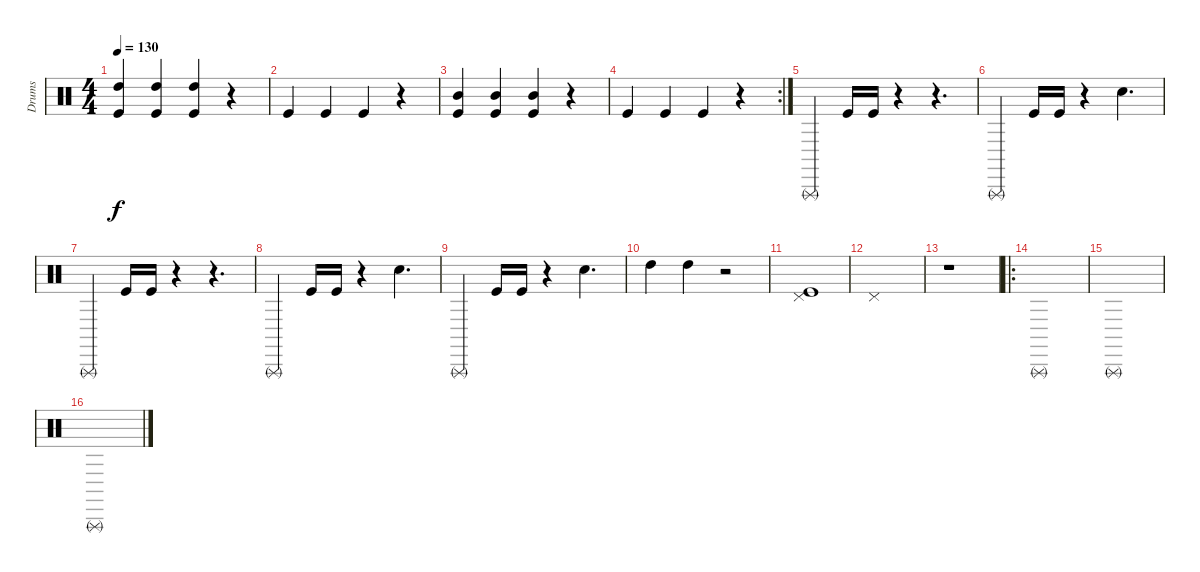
\track ("Drums" "Drums") {instrument percussion}
\staff {score}
\articulation defaults
\ts (4 4)
\tempo 130
\clef neutral
\ks c
("High Tom (hit)" "Kick (hit)").4{dy f} ("High Tom (hit)" "Kick (hit)").4 ("High Tom (hit)" "Kick (hit)").4 r.4 |
"Kick (hit)".4 "Kick (hit)".4 "Kick (hit)".4 r.4 |
("Mid Tom (hit)" "Kick (hit)").4 ("Mid Tom (hit)" "Kick (hit)").4 ("Mid Tom (hit)" "Kick (hit)").4 r.4 |
\rc 2 "Kick (hit)".4 "Kick (hit)".4 "Kick (hit)".4
r.4 |
"Triangle (rnute)".4 "Kick (hit)".16 "Kick (hit)".16 r.4 r.4{d} |
"Triangle (rnute)".4 "Kick (hit)".16 "Kick (hit)".16 r.4 "Snare (hit) 2".4{d} |
"Triangle (rnute)".4 "Kick (hit)".16 "Kick (hit)".16 r.4 r.4{d} |
"Triangle (rnute)".4 "Kick (hit)".16 "Kick (hit)".16 r.4 "Snare (hit) 2".4{d} |
"Triangle (rnute)".4 "Kick (hit)".16 "Kick (hit)".16 r.4 "Snare (hit) 2".4{d} |
"High Tom (hit)".4 "High Tom (hit)".4 r.2 |
("Pedal Hi-Hat (hit)" "Kick (hit)").1 |
"Pedal Hi-Hat (hit)".1 |
r.1 |
\ro "Triangle (rnute)".1
|
"Triangle (rnute)".1 |
"Triangle (rnute)".1
